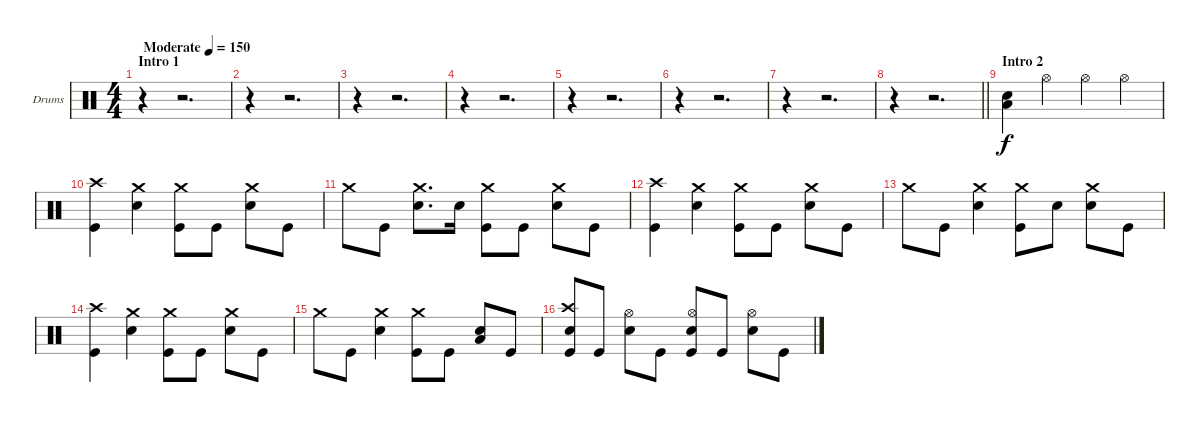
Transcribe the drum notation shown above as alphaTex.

\bracketExtendMode groupsimilarinstruments
\firstSystemTrackNameOrientation horizontal
\otherSystemsTrackNameOrientation horizontal
\track ("Drumkit" "Drums") {instrument percussion}
\staff {score}
\articulation defaults
\ts (4 4)
\beaming (8 2 2 2 2)
\section ("" "Intro 1")
\tempo (150 "Moderate")
\clef neutral
\ks c
r.4{dy f} r.2{d} |
r.4 r.2{d} |
r.4 r.2{d} |
r.4 r.2{d} |
r.4 r.2{d} |
r.4 r.2{d} |
r.4 r.2{d} |
\barLineRight lightlight
r.4 r.2{d} |
\section ("" "Intro 2")
("Low Tom (hit)" "Snare (hit) 2").4 "Hi-Hat (open)".4 "Hi-Hat (open)".4 "Hi-Hat (open)".4 |
("Crash high (hit)" "Kick (hit)").4 ("Crash medium (hit)" "Snare (hit) 2").4 ("Crash medium (hit)" "Kick (hit)").8 "Kick (hit)".8 ("Crash medium (hit)" "Snare (hit) 2").8 "Kick (hit)".8 |
"Crash medium (hit)".8 "Kick (hit)".8 ("Crash medium (hit)" "Snare (hit) 2").8{d} "Snare (hit) 2".16 ("Crash medium (hit)" "Kick (hit)").8 "Kick (hit)".8 ("Crash medium (hit)" "Snare (hit) 2").8 "Kick (hit)".8 |
("Crash high (hit)" "Kick (hit)").4 ("Crash medium (hit)" "Snare (hit) 2").4 ("Crash medium (hit)" "Kick (hit)").8 "Kick (hit)".8 ("Crash medium (hit)" "Snare (hit) 2").8 "Kick (hit)".8 |
"Crash medium (hit)".8 "Kick (hit)".8 ("Crash medium (hit)" "Snare (hit) 2").4 ("Crash medium (hit)" "Kick (hit)").8 "Snare (hit) 2".8 ("Crash medium (hit)" "Snare (hit) 2").8 "Kick (hit)".8 |
("Crash high (hit)" "Kick (hit)").4 ("Crash medium (hit)" "Snare (hit) 2").4 ("Crash medium (hit)" "Kick (hit)").8 "Kick (hit)".8 ("Crash medium (hit)" "Snare (hit) 2").8 "Kick (hit)".8 |
"Crash medium (hit)".8 "Kick (hit)".8 ("Crash medium (hit)" "Snare (hit) 2").4 ("Crash medium (hit)" "Kick (hit)").8 "Kick (hit)".8 ("Snare (hit) 2" "Low Tom (hit)").8 "Kick (hit)".8 |
("Crash high (hit)" "Snare (hit) 2" "Kick (hit)").8 "Kick (hit)".8 ("Hi-Hat (open)" "Snare (hit) 2").8 "Kick (hit)".8 ("Hi-Hat (open)" "Snare (hit) 2" "Kick (hit)").8 "Kick (hit)".8 ("Hi-Hat (open)" "Snare (hit) 2").8 "Kick (hit)".8
